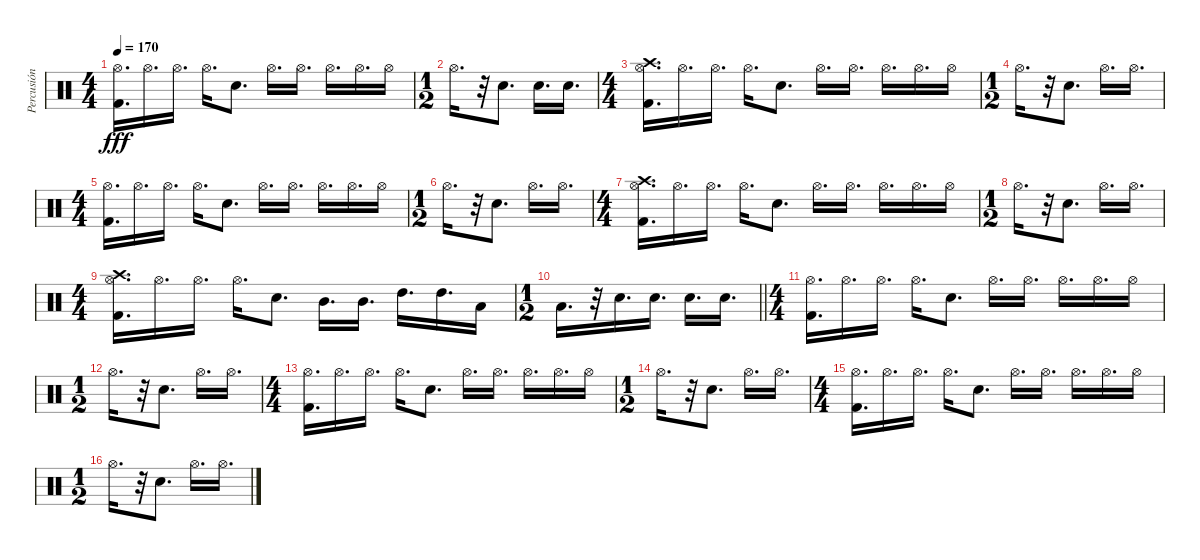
\track ("Percusión" "Percusión") {instrument percussion}
\staff {score}
\articulation defaults
\ts (4 4)
\tempo 170
\clef neutral
\ks c
("Hi-Hat (open)" "Kick (hit) 2").16{d dy fff} "Hi-Hat (open)".16{d} "Hi-Hat (open)".16{d} "Hi-Hat (open)".16{d} "Electric Snare (hit)".8{d} "Hi-Hat (open)".16{d} "Hi-Hat (open)".16{d} "Hi-Hat (open)".16{d} "Hi-Hat (open)".16{d} "Hi-Hat (open)".16 |
\ts (1 2)
"Hi-Hat (open)".16{d} r.32 "Electric Snare (hit)".8{d} "Electric Snare (hit)".16{d} "Electric Snare (hit)".16{d} |
\ts (4 4)
("Crash high (hit)" "Hi-Hat (open)" "Kick (hit) 2").16{d} "Hi-Hat (open)".16{d} "Hi-Hat (open)".16{d} "Hi-Hat (open)".16{d} "Electric Snare (hit)".8{d} "Hi-Hat (open)".16{d} "Hi-Hat (open)".16{d} "Hi-Hat (open)".16{d} "Hi-Hat (open)".16{d} "Hi-Hat (open)".16 |
\ts (1 2)
"Hi-Hat (open)".16{d} r.32 "Electric Snare (hit)".8{d} "Hi-Hat (open)".16{d} "Hi-Hat (open)".16{d} |
\ts (4 4)
("Hi-Hat (open)" "Kick (hit) 2").16{d} "Hi-Hat (open)".16{d} "Hi-Hat (open)".16{d} "Hi-Hat (open)".16{d} "Electric Snare (hit)".8{d} "Hi-Hat (open)".16{d} "Hi-Hat (open)".16{d} "Hi-Hat (open)".16{d} "Hi-Hat (open)".16{d} "Hi-Hat (open)".16 |
\ts (1 2)
"Hi-Hat (open)".16{d} r.32 "Electric Snare (hit)".8{d} "Hi-Hat (open)".16{d} "Hi-Hat (open)".16{d} |
\ts (4 4)
("Crash high (hit)" "Hi-Hat (open)" "Kick (hit) 2").16{d} "Hi-Hat (open)".16{d} "Hi-Hat (open)".16{d} "Hi-Hat (open)".16{d} "Electric Snare (hit)".8{d} "Hi-Hat (open)".16{d} "Hi-Hat (open)".16{d} "Hi-Hat (open)".16{d} "Hi-Hat (open)".16{d} "Hi-Hat (open)".16 |
\ts (1 2)
"Hi-Hat (open)".16{d} r.32 "Electric Snare (hit)".8{d} "Hi-Hat (open)".16{d} "Hi-Hat (open)".16{d} |
\ts (4 4)
("Crash high (hit)" "Hi-Hat (open)" "Kick (hit) 2").16{d} "Hi-Hat (open)".16{d} "Hi-Hat (open)".16{d} "Hi-Hat (open)".16{d} "Electric Snare (hit)".8{d} "Mid Tom (hit)".16{d} "Mid Tom (hit)".16{d} "High Tom (hit)".16{d} "High Tom (hit)".16{d} "Low Floor Tom (hit)".16 |
\ts (1 2)
\barLineRight lightlight "Low Floor Tom (hit)".16{d}
r.32 "Electric Snare (hit)".16{d} "Electric Snare (hit)".16{d} "Electric Snare (hit)".16{d} "Electric Snare (hit)".16{d} |
\ts (4 4)
("Hi-Hat (open)" "Kick (hit) 2").16{d} "Hi-Hat (open)".16{d} "Hi-Hat (open)".16{d} "Hi-Hat (open)".16{d} "Electric Snare (hit)".8{d} "Hi-Hat (open)".16{d} "Hi-Hat (open)".16{d} "Hi-Hat (open)".16{d} "Hi-Hat (open)".16{d} "Hi-Hat (open)".16 |
\ts (1 2)
"Hi-Hat (open)".16{d} r.32 "Electric Snare (hit)".8{d} "Hi-Hat (open)".16{d} "Hi-Hat (open)".16{d} |
\ts (4 4)
("Hi-Hat (open)" "Kick (hit) 2").16{d} "Hi-Hat (open)".16{d} "Hi-Hat (open)".16{d} "Hi-Hat (open)".16{d} "Electric Snare (hit)".8{d} "Hi-Hat (open)".16{d} "Hi-Hat (open)".16{d} "Hi-Hat (open)".16{d} "Hi-Hat (open)".16{d} "Hi-Hat (open)".16 |
\ts (1 2)
"Hi-Hat (open)".16{d} r.32 "Electric Snare (hit)".8{d} "Hi-Hat (open)".16{d} "Hi-Hat (open)".16{d} |
\ts (4 4)
("Hi-Hat (open)" "Kick (hit) 2").16{d} "Hi-Hat (open)".16{d} "Hi-Hat (open)".16{d} "Hi-Hat (open)".16{d} "Electric Snare (hit)".8{d} "Hi-Hat (open)".16{d} "Hi-Hat (open)".16{d} "Hi-Hat (open)".16{d} "Hi-Hat (open)".16{d} "Hi-Hat (open)".16 |
\ts (1 2)
"Hi-Hat (open)".16{d} r.32 "Electric Snare (hit)".8{d} "Hi-Hat (open)".16{d} "Hi-Hat (open)".16{d}
